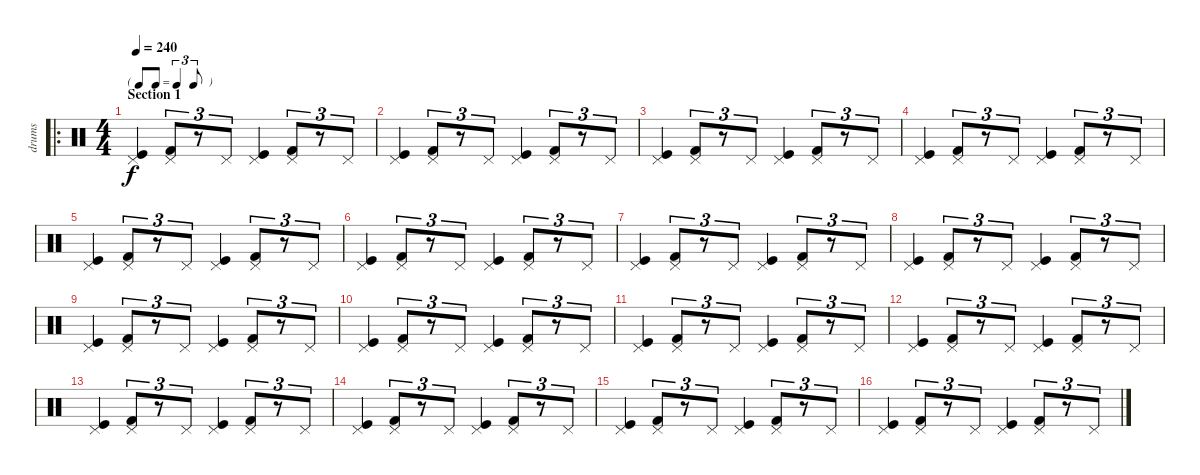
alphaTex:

\track ("drums" "drums") {instrument percussion}
\staff {score}
\articulation defaults
\ro
\ts (4 4)
\tf triplet8th
\section ("" "Section 1")
\tempo 240
\clef neutral
\ks c
("Pedal Hi-Hat (hit)" "Kick (hit)").4{dy f} ("Pedal Hi-Hat (hit)" "Kick (hit) 2").8{tu (3 2)} r.8{tu (3 2)} "Pedal Hi-Hat (hit)".8{tu (3 2)} ("Pedal Hi-Hat (hit)" "Kick (hit)").4 ("Pedal Hi-Hat (hit)" "Kick (hit) 2").8{tu (3 2)} r.8{tu (3 2)} "Pedal Hi-Hat (hit)".8{tu (3 2)} |
("Pedal Hi-Hat (hit)" "Kick (hit)").4 ("Pedal Hi-Hat (hit)" "Kick (hit) 2").8{tu (3 2)} r.8{tu (3 2)} "Pedal Hi-Hat (hit)".8{tu (3 2)} ("Pedal Hi-Hat (hit)" "Kick (hit)").4 ("Pedal Hi-Hat (hit)" "Kick (hit) 2").8{tu (3 2)} r.8{tu (3 2)} "Pedal Hi-Hat (hit)".8{tu (3 2)} |
("Pedal Hi-Hat (hit)" "Kick (hit)").4 ("Pedal Hi-Hat (hit)" "Kick (hit) 2").8{tu (3 2)} r.8{tu (3 2)} "Pedal Hi-Hat (hit)".8{tu (3 2)} ("Pedal Hi-Hat (hit)" "Kick (hit)").4 ("Pedal Hi-Hat (hit)" "Kick (hit) 2").8{tu (3 2)} r.8{tu (3 2)} "Pedal Hi-Hat (hit)".8{tu (3 2)} |
("Pedal Hi-Hat (hit)" "Kick (hit)").4 ("Pedal Hi-Hat (hit)" "Kick (hit) 2").8{tu (3 2)} r.8{tu (3 2)} "Pedal Hi-Hat (hit)".8{tu (3 2)} ("Pedal Hi-Hat (hit)" "Kick (hit)").4 ("Pedal Hi-Hat (hit)" "Kick (hit) 2").8{tu (3 2)} r.8{tu (3 2)} "Pedal Hi-Hat (hit)".8{tu (3 2)} |
("Pedal Hi-Hat (hit)" "Kick (hit)").4 ("Pedal Hi-Hat (hit)" "Kick (hit) 2").8{tu (3 2)} r.8{tu (3 2)} "Pedal Hi-Hat (hit)".8{tu (3 2)} ("Pedal Hi-Hat (hit)" "Kick (hit)").4 ("Pedal Hi-Hat (hit)" "Kick (hit) 2").8{tu (3 2)} r.8{tu (3 2)} "Pedal Hi-Hat (hit)".8{tu (3 2)} |
("Pedal Hi-Hat (hit)" "Kick (hit)").4 ("Pedal Hi-Hat (hit)" "Kick (hit) 2").8{tu (3 2)} r.8{tu (3 2)} "Pedal Hi-Hat (hit)".8{tu (3 2)} ("Pedal Hi-Hat (hit)" "Kick (hit)").4 ("Pedal Hi-Hat (hit)" "Kick (hit) 2").8{tu (3 2)} r.8{tu (3 2)} "Pedal Hi-Hat (hit)".8{tu (3 2)} |
("Pedal Hi-Hat (hit)" "Kick (hit)").4 ("Pedal Hi-Hat (hit)" "Kick (hit) 2").8{tu (3 2)} r.8{tu (3 2)} "Pedal Hi-Hat (hit)".8{tu (3 2)} ("Pedal Hi-Hat (hit)" "Kick (hit)").4 ("Pedal Hi-Hat (hit)" "Kick (hit) 2").8{tu (3 2)} r.8{tu (3 2)} "Pedal Hi-Hat (hit)".8{tu (3 2)} |
("Pedal Hi-Hat (hit)" "Kick (hit)").4 ("Pedal Hi-Hat (hit)" "Kick (hit) 2").8{tu (3 2)} r.8{tu (3 2)} "Pedal Hi-Hat (hit)".8{tu (3 2)} ("Pedal Hi-Hat (hit)" "Kick (hit)").4 ("Pedal Hi-Hat (hit)" "Kick (hit) 2").8{tu (3 2)} r.8{tu (3 2)} "Pedal Hi-Hat (hit)".8{tu (3 2)} |
("Pedal Hi-Hat (hit)" "Kick (hit)").4 ("Pedal Hi-Hat (hit)" "Kick (hit) 2").8{tu (3 2)} r.8{tu (3 2)} "Pedal Hi-Hat (hit)".8{tu (3 2)} ("Pedal Hi-Hat (hit)" "Kick (hit)").4 ("Pedal Hi-Hat (hit)" "Kick (hit) 2").8{tu (3 2)} r.8{tu (3 2)} "Pedal Hi-Hat (hit)".8{tu (3 2)} |
("Pedal Hi-Hat (hit)" "Kick (hit)").4 ("Pedal Hi-Hat (hit)" "Kick (hit) 2").8{tu (3 2)} r.8{tu (3 2)} "Pedal Hi-Hat (hit)".8{tu (3 2)} ("Pedal Hi-Hat (hit)" "Kick (hit)").4 ("Pedal Hi-Hat (hit)" "Kick (hit) 2").8{tu (3 2)} r.8{tu (3 2)} "Pedal Hi-Hat (hit)".8{tu (3 2)} |
("Pedal Hi-Hat (hit)" "Kick (hit)").4 ("Pedal Hi-Hat (hit)" "Kick (hit) 2").8{tu (3 2)} r.8{tu (3 2)} "Pedal Hi-Hat (hit)".8{tu (3 2)} ("Pedal Hi-Hat (hit)" "Kick (hit)").4 ("Pedal Hi-Hat (hit)" "Kick (hit) 2").8{tu (3 2)} r.8{tu (3 2)} "Pedal Hi-Hat (hit)".8{tu (3 2)} |
("Pedal Hi-Hat (hit)" "Kick (hit)").4 ("Pedal Hi-Hat (hit)" "Kick (hit) 2").8{tu (3 2)} r.8{tu (3 2)} "Pedal Hi-Hat (hit)".8{tu (3 2)} ("Pedal Hi-Hat (hit)" "Kick (hit)").4 ("Pedal Hi-Hat (hit)" "Kick (hit) 2").8{tu (3 2)} r.8{tu (3 2)} "Pedal Hi-Hat (hit)".8{tu (3 2)} |
("Pedal Hi-Hat (hit)" "Kick (hit)").4 ("Pedal Hi-Hat (hit)" "Kick (hit) 2").8{tu (3 2)} r.8{tu (3 2)} "Pedal Hi-Hat (hit)".8{tu (3 2)} ("Pedal Hi-Hat (hit)" "Kick (hit)").4 ("Pedal Hi-Hat (hit)" "Kick (hit) 2").8{tu (3 2)} r.8{tu (3 2)} "Pedal Hi-Hat (hit)".8{tu (3 2)} |
("Pedal Hi-Hat (hit)" "Kick (hit)").4 ("Pedal Hi-Hat (hit)" "Kick (hit) 2").8{tu (3 2)} r.8{tu (3 2)} "Pedal Hi-Hat (hit)".8{tu (3 2)} ("Pedal Hi-Hat (hit)" "Kick (hit)").4 ("Pedal Hi-Hat (hit)" "Kick (hit) 2").8{tu (3 2)} r.8{tu (3 2)} "Pedal Hi-Hat (hit)".8{tu (3 2)} |
("Pedal Hi-Hat (hit)" "Kick (hit)").4 ("Pedal Hi-Hat (hit)" "Kick (hit) 2").8{tu (3 2)} r.8{tu (3 2)} "Pedal Hi-Hat (hit)".8{tu (3 2)} ("Pedal Hi-Hat (hit)" "Kick (hit)").4 ("Pedal Hi-Hat (hit)" "Kick (hit) 2").8{tu (3 2)} r.8{tu (3 2)} "Pedal Hi-Hat (hit)".8{tu (3 2)} |
("Pedal Hi-Hat (hit)" "Kick (hit)").4 ("Pedal Hi-Hat (hit)" "Kick (hit) 2").8{tu (3 2)} r.8{tu (3 2)} "Pedal Hi-Hat (hit)".8{tu (3 2)} ("Pedal Hi-Hat (hit)" "Kick (hit)").4 ("Pedal Hi-Hat (hit)" "Kick (hit) 2").8{tu (3 2)} r.8{tu (3 2)} "Pedal Hi-Hat (hit)".8{tu (3 2)}
